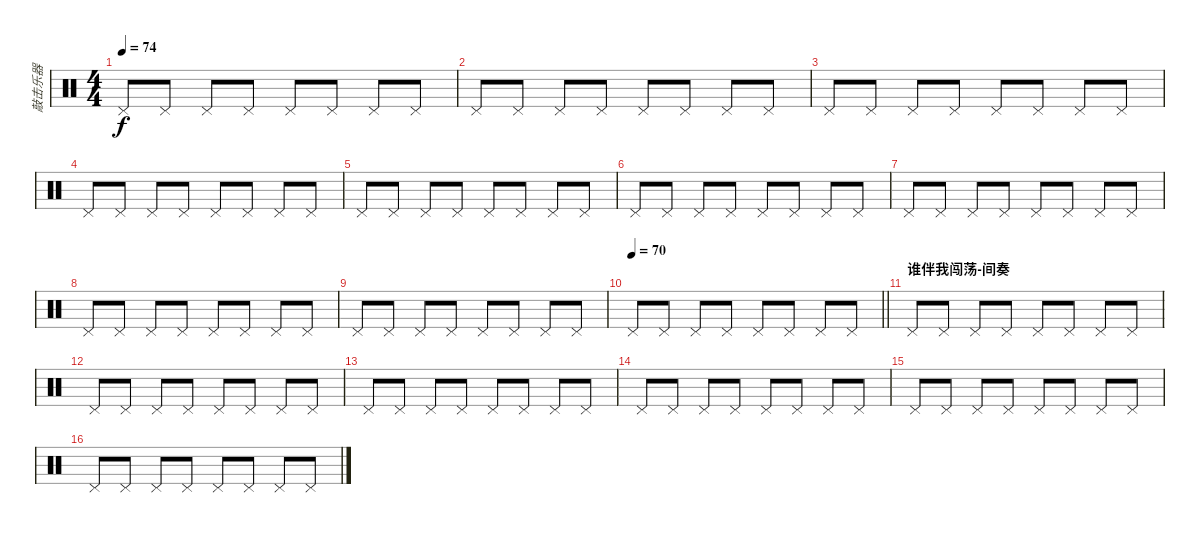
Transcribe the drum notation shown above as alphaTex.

\track ("敲击乐器" "敲击乐器") {instrument percussion}
\staff {score}
\articulation defaults
\ts (4 4)
\tempo 74
\clef neutral
\ks c "Pedal Hi-Hat (hit)".8{dy f} "Pedal Hi-Hat (hit)".8 "Pedal Hi-Hat (hit)".8 "Pedal Hi-Hat (hit)".8 "Pedal Hi-Hat (hit)".8 "Pedal Hi-Hat (hit)".8 "Pedal Hi-Hat (hit)".8 "Pedal Hi-Hat (hit)".8
|
"Pedal Hi-Hat (hit)".8 "Pedal Hi-Hat (hit)".8 "Pedal Hi-Hat (hit)".8 "Pedal Hi-Hat (hit)".8 "Pedal Hi-Hat (hit)".8 "Pedal Hi-Hat (hit)".8 "Pedal Hi-Hat (hit)".8 "Pedal Hi-Hat (hit)".8 |
"Pedal Hi-Hat (hit)".8 "Pedal Hi-Hat (hit)".8 "Pedal Hi-Hat (hit)".8 "Pedal Hi-Hat (hit)".8 "Pedal Hi-Hat (hit)".8 "Pedal Hi-Hat (hit)".8 "Pedal Hi-Hat (hit)".8 "Pedal Hi-Hat (hit)".8 |
"Pedal Hi-Hat (hit)".8 "Pedal Hi-Hat (hit)".8 "Pedal Hi-Hat (hit)".8 "Pedal Hi-Hat (hit)".8 "Pedal Hi-Hat (hit)".8 "Pedal Hi-Hat (hit)".8 "Pedal Hi-Hat (hit)".8 "Pedal Hi-Hat (hit)".8 |
"Pedal Hi-Hat (hit)".8 "Pedal Hi-Hat (hit)".8 "Pedal Hi-Hat (hit)".8 "Pedal Hi-Hat (hit)".8 "Pedal Hi-Hat (hit)".8 "Pedal Hi-Hat (hit)".8 "Pedal Hi-Hat (hit)".8 "Pedal Hi-Hat (hit)".8 |
"Pedal Hi-Hat (hit)".8 "Pedal Hi-Hat (hit)".8 "Pedal Hi-Hat (hit)".8 "Pedal Hi-Hat (hit)".8 "Pedal Hi-Hat (hit)".8 "Pedal Hi-Hat (hit)".8 "Pedal Hi-Hat (hit)".8 "Pedal Hi-Hat (hit)".8 |
"Pedal Hi-Hat (hit)".8 "Pedal Hi-Hat (hit)".8 "Pedal Hi-Hat (hit)".8 "Pedal Hi-Hat (hit)".8 "Pedal Hi-Hat (hit)".8 "Pedal Hi-Hat (hit)".8 "Pedal Hi-Hat (hit)".8 "Pedal Hi-Hat (hit)".8 |
"Pedal Hi-Hat (hit)".8 "Pedal Hi-Hat (hit)".8 "Pedal Hi-Hat (hit)".8 "Pedal Hi-Hat (hit)".8 "Pedal Hi-Hat (hit)".8 "Pedal Hi-Hat (hit)".8 "Pedal Hi-Hat (hit)".8 "Pedal Hi-Hat (hit)".8 |
"Pedal Hi-Hat (hit)".8 "Pedal Hi-Hat (hit)".8 "Pedal Hi-Hat (hit)".8 "Pedal Hi-Hat (hit)".8 "Pedal Hi-Hat (hit)".8 "Pedal Hi-Hat (hit)".8 "Pedal Hi-Hat (hit)".8 "Pedal Hi-Hat (hit)".8 |
\tempo 70
\barLineRight lightlight "Pedal Hi-Hat (hit)".8 "Pedal Hi-Hat (hit)".8 "Pedal Hi-Hat (hit)".8 "Pedal Hi-Hat (hit)".8 "Pedal Hi-Hat (hit)".8 "Pedal Hi-Hat (hit)".8 "Pedal Hi-Hat (hit)".8 "Pedal Hi-Hat (hit)".8
|
\section ("" "谁伴我闯荡-间奏")
"Pedal Hi-Hat (hit)".8 "Pedal Hi-Hat (hit)".8 "Pedal Hi-Hat (hit)".8 "Pedal Hi-Hat (hit)".8 "Pedal Hi-Hat (hit)".8 "Pedal Hi-Hat (hit)".8 "Pedal Hi-Hat (hit)".8 "Pedal Hi-Hat (hit)".8 |
"Pedal Hi-Hat (hit)".8 "Pedal Hi-Hat (hit)".8 "Pedal Hi-Hat (hit)".8 "Pedal Hi-Hat (hit)".8 "Pedal Hi-Hat (hit)".8 "Pedal Hi-Hat (hit)".8 "Pedal Hi-Hat (hit)".8 "Pedal Hi-Hat (hit)".8 |
"Pedal Hi-Hat (hit)".8 "Pedal Hi-Hat (hit)".8 "Pedal Hi-Hat (hit)".8 "Pedal Hi-Hat (hit)".8 "Pedal Hi-Hat (hit)".8 "Pedal Hi-Hat (hit)".8 "Pedal Hi-Hat (hit)".8 "Pedal Hi-Hat (hit)".8 |
"Pedal Hi-Hat (hit)".8 "Pedal Hi-Hat (hit)".8 "Pedal Hi-Hat (hit)".8 "Pedal Hi-Hat (hit)".8 "Pedal Hi-Hat (hit)".8 "Pedal Hi-Hat (hit)".8 "Pedal Hi-Hat (hit)".8 "Pedal Hi-Hat (hit)".8 |
"Pedal Hi-Hat (hit)".8 "Pedal Hi-Hat (hit)".8 "Pedal Hi-Hat (hit)".8 "Pedal Hi-Hat (hit)".8 "Pedal Hi-Hat (hit)".8 "Pedal Hi-Hat (hit)".8 "Pedal Hi-Hat (hit)".8 "Pedal Hi-Hat (hit)".8 |
"Pedal Hi-Hat (hit)".8 "Pedal Hi-Hat (hit)".8 "Pedal Hi-Hat (hit)".8 "Pedal Hi-Hat (hit)".8 "Pedal Hi-Hat (hit)".8 "Pedal Hi-Hat (hit)".8 "Pedal Hi-Hat (hit)".8 "Pedal Hi-Hat (hit)".8
